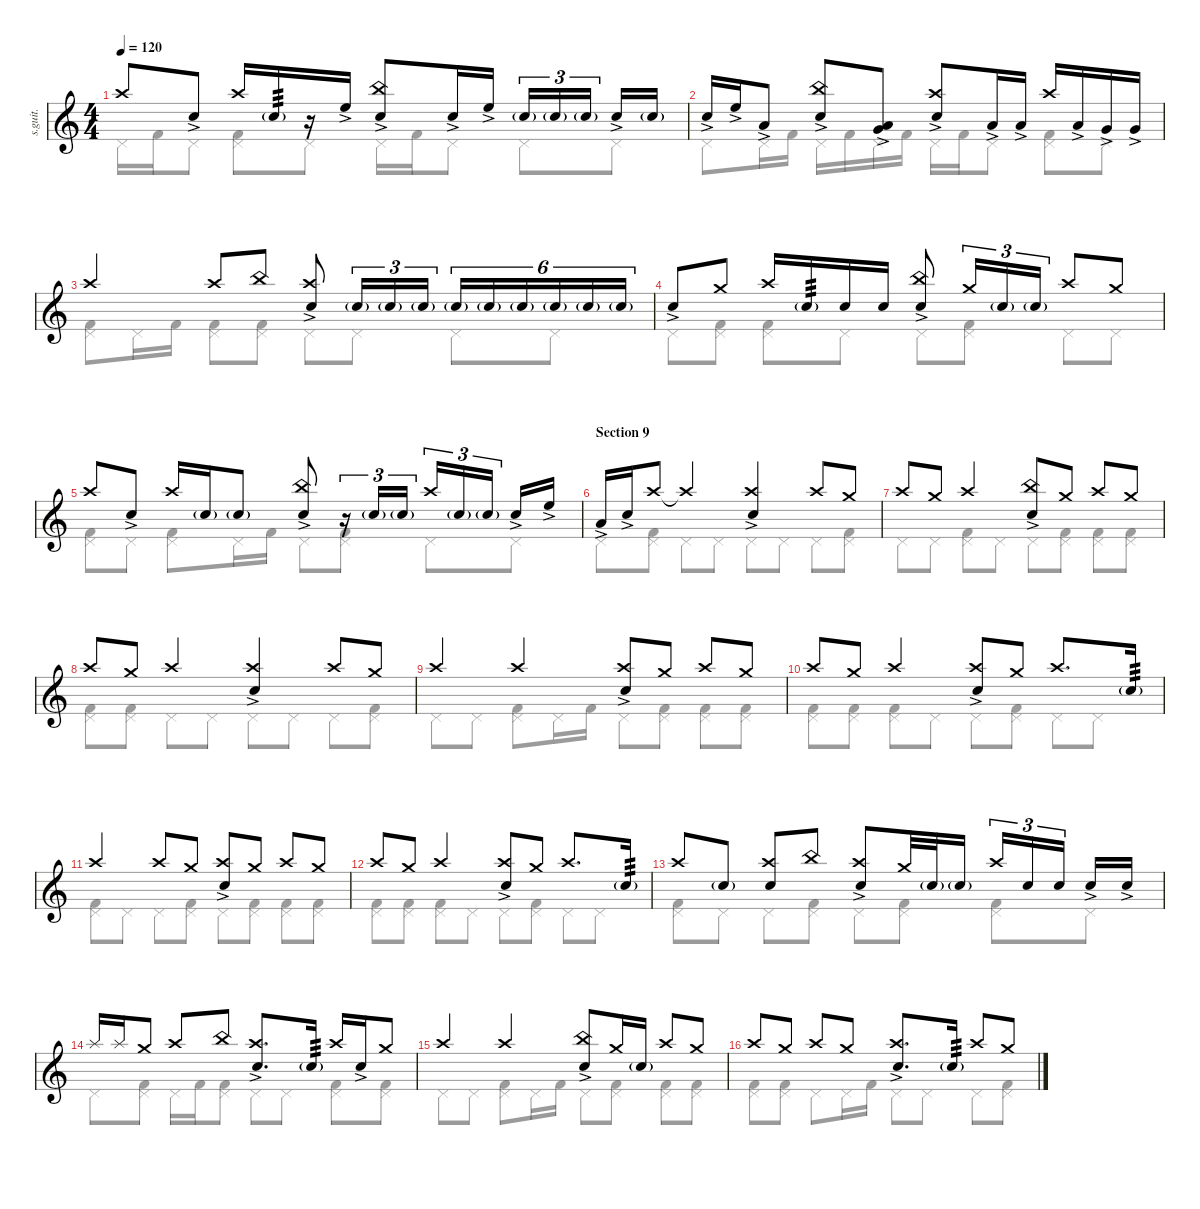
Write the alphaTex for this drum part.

\defaultSystemsLayout 4
\hideDynamics
\bracketExtendMode nobrackets
\track ("Matt Halpern" "s.guit.") {instrument percussion}
\staff {score}
\articulation defaults
\voice
\ts (4 4)
\tempo 120
\clef g2
\ks c "Crash high (hit)".8{lyrics (0 "") lyrics (1 "") lyrics (2 "") lyrics (3 "") lyrics (4 "") dy f} "Snare (hit) 2"{ac}.8{lyrics (0 "") lyrics (1 "") lyrics (2 "") lyrics (3 "") lyrics (4 "")} "Crash high (hit)".16{lyrics (0 "") lyrics (1 "") lyrics (2 "") lyrics (3 "") lyrics (4 "")} "Snare (hit) 2"{g}.16{lyrics (0 "") lyrics (1 "") lyrics (2 "") lyrics (3 "") lyrics (4 "") tp 3}
r.16 "High Floor Tom (hit)"{ac}.16{lyrics (0 "") lyrics (1 "") lyrics (2 "") lyrics (3 "") lyrics (4 "")} ("Snare (hit) 2"{ac} "China (hit)").8{lyrics (0 "") lyrics (1 "") lyrics (2 "") lyrics (3 "") lyrics (4 "")} "Snare (hit) 2"{ac}.16{lyrics (0 "") lyrics (1 "") lyrics (2 "") lyrics (3 "") lyrics (4 "")} "High Floor Tom (hit)"{ac}.16{lyrics (0 "") lyrics (1 "") lyrics (2 "") lyrics (3 "") lyrics (4 "")} "Snare (hit) 2"{g}.16{tu (3 2) lyrics (0 "") lyrics (1 "") lyrics (2 "") lyrics (3 "") lyrics (4 "")} "Snare (hit) 2"{g}.16{tu (3 2) lyrics (0 "") lyrics (1 "") lyrics (2 "") lyrics (3 "") lyrics (4 "")} "Snare (hit) 2"{g}.16{tu (3 2) lyrics (0 "") lyrics (1 "") lyrics (2 "") lyrics (3 "") lyrics (4 "")} "Snare (hit) 2"{ac}.16{lyrics (0 "") lyrics (1 "") lyrics (2 "") lyrics (3 "") lyrics (4 "")} "Snare (hit) 2"{g}.16{lyrics (0 "") lyrics (1 "") lyrics (2 "") lyrics (3 "") lyrics (4 "")} |
"Snare (hit) 2"{ac}.16{lyrics (0 "") lyrics (1 "") lyrics (2 "") lyrics (3 "") lyrics (4 "")} "High Floor Tom (hit)"{ac}.16{lyrics (0 "") lyrics (1 "") lyrics (2 "") lyrics (3 "") lyrics (4 "")} "Low Tom (hit)"{ac}.8{lyrics (0 "") lyrics (1 "") lyrics (2 "") lyrics (3 "") lyrics (4 "")} ("Snare (hit) 2"{ac} "China (hit)").8{lyrics (0 "") lyrics (1 "") lyrics (2 "") lyrics (3 "") lyrics (4 "")} ("Very Low Tom (hit)"{ac} "Low Tom (hit)"{ac}).8{lyrics (0 "") lyrics (1 "") lyrics (2 "") lyrics (3 "") lyrics (4 "")} ("Snare (hit) 2"{ac} "Crash high (hit)").8{lyrics (0 "") lyrics (1 "") lyrics (2 "") lyrics (3 "") lyrics (4 "")} "Low Tom (hit)"{ac}.16{lyrics (0 "") lyrics (1 "") lyrics (2 "") lyrics (3 "") lyrics (4 "")} "Low Tom (hit)"{ac}.16{lyrics (0 "") lyrics (1 "") lyrics (2 "") lyrics (3 "") lyrics (4 "")} "Crash high (hit)".16{lyrics (0 "") lyrics (1 "") lyrics (2 "") lyrics (3 "") lyrics (4 "")} "Low Tom (hit)"{ac}.16{lyrics (0 "") lyrics (1 "") lyrics (2 "") lyrics (3 "") lyrics (4 "")} "Very Low Tom (hit)"{ac}.16{lyrics (0 "") lyrics (1 "") lyrics (2 "") lyrics (3 "") lyrics (4 "")} "Very Low Tom (hit)"{ac}.16{lyrics (0 "") lyrics (1 "") lyrics (2 "") lyrics (3 "") lyrics (4 "")} |
"Crash high (hit)".4{lyrics (0 "") lyrics (1 "") lyrics (2 "") lyrics (3 "") lyrics (4 "")} "Crash high (hit)".8{lyrics (0 "") lyrics (1 "") lyrics (2 "") lyrics (3 "") lyrics (4 "")} "China (hit)".8{lyrics (0 "") lyrics (1 "") lyrics (2 "") lyrics (3 "") lyrics (4 "")} ("Crash high (hit)" "Snare (hit) 2"{ac}).8{lyrics (0 "") lyrics (1 "") lyrics (2 "") lyrics (3 "") lyrics (4 "")} "Snare (hit) 2"{g}.16{tu (3 2) lyrics (0 "") lyrics (1 "") lyrics (2 "") lyrics (3 "") lyrics (4 "")} "Snare (hit) 2"{g}.16{tu (3 2) lyrics (0 "") lyrics (1 "") lyrics (2 "") lyrics (3 "") lyrics (4 "")} "Snare (hit) 2"{g}.16{tu (3 2) lyrics (0 "") lyrics (1 "") lyrics (2 "") lyrics (3 "") lyrics (4 "")} "Snare (hit) 2"{g}.16{tu (6 4) lyrics (0 "") lyrics (1 "") lyrics (2 "") lyrics (3 "") lyrics (4 "")} "Snare (hit) 2"{g}.16{tu (6 4) lyrics (0 "") lyrics (1 "") lyrics (2 "") lyrics (3 "") lyrics (4 "")} "Snare (hit) 2"{g}.16{tu (6 4) lyrics (0 "") lyrics (1 "") lyrics (2 "") lyrics (3 "") lyrics (4 "")} "Snare (hit) 2"{g}.16{tu (6 4) lyrics (0 "") lyrics (1 "") lyrics (2 "") lyrics (3 "") lyrics (4 "")} "Snare (hit) 2"{g}.16{tu (6 4) lyrics (0 "") lyrics (1 "") lyrics (2 "") lyrics (3 "") lyrics (4 "")} "Snare (hit) 2"{g}.16{tu (6 4) lyrics (0 "") lyrics (1 "") lyrics (2 "") lyrics (3 "") lyrics (4 "")} |
"Snare (hit) 2"{ac}.8{lyrics (0 "") lyrics (1 "") lyrics (2 "") lyrics (3 "") lyrics (4 "")} "Crash medium (hit)".8{lyrics (0 "") lyrics (1 "") lyrics (2 "") lyrics (3 "") lyrics (4 "")} "Crash high (hit)".16{lyrics (0 "") lyrics (1 "") lyrics (2 "") lyrics (3 "") lyrics (4 "")} "Snare (hit) 2"{g}.16{lyrics (0 "") lyrics (1 "") lyrics (2 "") lyrics (3 "") lyrics (4 "") tp 3} "Snare (hit) 2".16{lyrics (0 "") lyrics (1 "") lyrics (2 "") lyrics (3 "") lyrics (4 "")} "Snare (hit) 2".16{lyrics (0 "") lyrics (1 "") lyrics (2 "") lyrics (3 "") lyrics (4 "")} ("Snare (hit) 2"{ac} "China (hit)").8{lyrics (0 "") lyrics (1 "") lyrics (2 "") lyrics (3 "") lyrics (4 "")} "Crash medium (hit)".16{tu (3 2) lyrics (0 "") lyrics (1 "") lyrics (2 "") lyrics (3 "") lyrics (4 "")} "Snare (hit) 2"{g}.16{tu (3 2) lyrics (0 "") lyrics (1 "") lyrics (2 "") lyrics (3 "") lyrics (4 "")} "Snare (hit) 2"{g}.16{tu (3 2) lyrics (0 "") lyrics (1 "") lyrics (2 "") lyrics (3 "") lyrics (4 "")} "Crash high (hit)".8{lyrics (0 "") lyrics (1 "") lyrics (2 "") lyrics (3 "") lyrics (4 "")} "Crash medium (hit)".8{lyrics (0 "") lyrics (1 "") lyrics (2 "") lyrics (3 "") lyrics (4 "")} |
"Crash high (hit)".8{lyrics (0 "") lyrics (1 "") lyrics (2 "") lyrics (3 "") lyrics (4 "")} "Snare (hit) 2"{ac}.8{lyrics (0 "") lyrics (1 "") lyrics (2 "") lyrics (3 "") lyrics (4 "")} "Crash high (hit)".16{lyrics (0 "") lyrics (1 "") lyrics (2 "") lyrics (3 "") lyrics (4 "")} "Snare (hit) 2"{g}.16{lyrics (0 "") lyrics (1 "") lyrics (2 "") lyrics (3 "") lyrics (4 "")} "Snare (hit) 2"{g}.8{lyrics (0 "") lyrics (1 "") lyrics (2 "") lyrics (3 "") lyrics (4 "")} ("China (hit)" "Snare (hit) 2"{ac}).8{lyrics (0 "") lyrics (1 "") lyrics (2 "") lyrics (3 "") lyrics (4 "")} r.16{tu (3 2)} "Snare (hit) 2"{g}.16{tu (3 2) lyrics (0 "") lyrics (1 "") lyrics (2 "") lyrics (3 "") lyrics (4 "")} "Snare (hit) 2"{g}.16{tu (3 2) lyrics (0 "") lyrics (1 "") lyrics (2 "") lyrics (3 "") lyrics (4 "")} "Crash high (hit)".16{tu (3 2) lyrics (0 "") lyrics (1 "") lyrics (2 "") lyrics (3 "") lyrics (4 "")} "Snare (hit) 2"{g}.16{tu (3 2) lyrics (0 "") lyrics (1 "") lyrics (2 "") lyrics (3 "") lyrics (4 "")} "Snare (hit) 2"{g}.16{tu (3 2) lyrics (0 "") lyrics (1 "") lyrics (2 "") lyrics (3 "") lyrics (4 "")} "Snare (hit) 2"{ac}.16{lyrics (0 "") lyrics (1 "") lyrics (2 "") lyrics (3 "") lyrics (4 "")} "High Floor Tom (hit)"{ac}.16{lyrics (0 "") lyrics (1 "") lyrics (2 "") lyrics (3 "") lyrics (4 "")} |
\section ("" "Section 9")
"Low Tom (hit)"{ac}.16{lyrics (0 "") lyrics (1 "") lyrics (2 "") lyrics (3 "") lyrics (4 "")} "Snare (hit) 2"{ac}.16{lyrics (0 "") lyrics (1 "") lyrics (2 "") lyrics (3 "") lyrics (4 "")} "Crash high (hit)".8{lyrics (0 "") lyrics (1 "") lyrics (2 "") lyrics (3 "") lyrics (4 "")} "Crash high (hit)"{t}.4{lyrics (0 "") lyrics (1 "") lyrics (2 "") lyrics (3 "") lyrics (4 "")} ("Crash high (hit)" "Snare (hit) 2"{ac}).4{lyrics (0 "") lyrics (1 "") lyrics (2 "") lyrics (3 "") lyrics (4 "")} "Crash high (hit)".8{lyrics (0 "") lyrics (1 "") lyrics (2 "") lyrics (3 "") lyrics (4 "")} "Crash medium (hit)".8{lyrics (0 "") lyrics (1 "") lyrics (2 "") lyrics (3 "") lyrics (4 "")} |
"Crash high (hit)".8{lyrics (0 "") lyrics (1 "") lyrics (2 "") lyrics (3 "") lyrics (4 "")} "Crash medium (hit)".8{lyrics (0 "") lyrics (1 "") lyrics (2 "") lyrics (3 "") lyrics (4 "")} "Crash high (hit)".4{lyrics (0 "") lyrics (1 "") lyrics (2 "") lyrics (3 "") lyrics (4 "")} ("China (hit)" "Snare (hit) 2"{ac}).8{lyrics (0 "") lyrics (1 "") lyrics (2 "") lyrics (3 "") lyrics (4 "")} "Crash medium (hit)".8{lyrics (0 "") lyrics (1 "") lyrics (2 "") lyrics (3 "") lyrics (4 "")} "Crash high (hit)".8{lyrics (0 "") lyrics (1 "") lyrics (2 "") lyrics (3 "") lyrics (4 "")} "Crash medium (hit)".8{lyrics (0 "") lyrics (1 "") lyrics (2 "") lyrics (3 "") lyrics (4 "")} |
"Crash high (hit)".8{lyrics (0 "") lyrics (1 "") lyrics (2 "") lyrics (3 "") lyrics (4 "")} "Crash medium (hit)".8{lyrics (0 "") lyrics (1 "") lyrics (2 "") lyrics (3 "") lyrics (4 "")} "Crash high (hit)".4{lyrics (0 "") lyrics (1 "") lyrics (2 "") lyrics (3 "") lyrics (4 "")} ("Crash high (hit)" "Snare (hit) 2"{ac}).4{lyrics (0 "") lyrics (1 "") lyrics (2 "") lyrics (3 "") lyrics (4 "")} "Crash high (hit)".8{lyrics (0 "") lyrics (1 "") lyrics (2 "") lyrics (3 "") lyrics (4 "")} "Crash medium (hit)".8{lyrics (0 "") lyrics (1 "") lyrics (2 "") lyrics (3 "") lyrics (4 "")} |
"Crash high (hit)".4{lyrics (0 "") lyrics (1 "") lyrics (2 "") lyrics (3 "") lyrics (4 "")} "Crash high (hit)".4{lyrics (0 "") lyrics (1 "") lyrics (2 "") lyrics (3 "") lyrics (4 "")} ("Crash high (hit)" "Snare (hit) 2"{ac}).8{lyrics (0 "") lyrics (1 "") lyrics (2 "") lyrics (3 "") lyrics (4 "")} "Crash medium (hit)".8{lyrics (0 "") lyrics (1 "") lyrics (2 "") lyrics (3 "") lyrics (4 "")} "Crash high (hit)".8{lyrics (0 "") lyrics (1 "") lyrics (2 "") lyrics (3 "") lyrics (4 "")} "Crash medium (hit)".8{lyrics (0 "") lyrics (1 "") lyrics (2 "") lyrics (3 "") lyrics (4 "")} |
"Crash high (hit)".8{lyrics (0 "") lyrics (1 "") lyrics (2 "") lyrics (3 "") lyrics (4 "")} "Crash medium (hit)".8{lyrics (0 "") lyrics (1 "") lyrics (2 "") lyrics (3 "") lyrics (4 "")} "Crash high (hit)".4{lyrics (0 "") lyrics (1 "") lyrics (2 "") lyrics (3 "") lyrics (4 "")} ("Crash high (hit)" "Snare (hit) 2"{ac}).8{lyrics (0 "") lyrics (1 "") lyrics (2 "") lyrics (3 "") lyrics (4 "")} "Crash medium (hit)".8{lyrics (0 "") lyrics (1 "") lyrics (2 "") lyrics (3 "") lyrics (4 "")} "Crash high (hit)".8{d lyrics (0 "") lyrics (1 "") lyrics (2 "") lyrics (3 "") lyrics (4 "")} "Snare (hit) 2"{g}.16{lyrics (0 "") lyrics (1 "") lyrics (2 "") lyrics (3 "") lyrics (4 "") tp 3} |
"Crash high (hit)".4{lyrics (0 "") lyrics (1 "") lyrics (2 "") lyrics (3 "") lyrics (4 "")} "Crash high (hit)".8{lyrics (0 "") lyrics (1 "") lyrics (2 "") lyrics (3 "") lyrics (4 "")} "Crash medium (hit)".8{lyrics (0 "") lyrics (1 "") lyrics (2 "") lyrics (3 "") lyrics (4 "")} ("Crash high (hit)" "Snare (hit) 2"{ac}).8{lyrics (0 "") lyrics (1 "") lyrics (2 "") lyrics (3 "") lyrics (4 "")} "Crash medium (hit)".8{lyrics (0 "") lyrics (1 "") lyrics (2 "") lyrics (3 "") lyrics (4 "")} "Crash high (hit)".8{lyrics (0 "") lyrics (1 "") lyrics (2 "") lyrics (3 "") lyrics (4 "")} "Crash medium (hit)".8{lyrics (0 "") lyrics (1 "") lyrics (2 "") lyrics (3 "") lyrics (4 "")} |
"Crash high (hit)".8{lyrics (0 "") lyrics (1 "") lyrics (2 "") lyrics (3 "") lyrics (4 "")} "Crash medium (hit)".8{lyrics (0 "") lyrics (1 "") lyrics (2 "") lyrics (3 "") lyrics (4 "")} "Crash high (hit)".4{lyrics (0 "") lyrics (1 "") lyrics (2 "") lyrics (3 "") lyrics (4 "")} ("Crash high (hit)" "Snare (hit) 2"{ac}).8{lyrics (0 "") lyrics (1 "") lyrics (2 "") lyrics (3 "") lyrics (4 "")} "Crash medium (hit)".8{lyrics (0 "") lyrics (1 "") lyrics (2 "") lyrics (3 "") lyrics (4 "")} "Crash high (hit)".8{d lyrics (0 "") lyrics (1 "") lyrics (2 "") lyrics (3 "") lyrics (4 "")} "Snare (hit) 2"{g}.16{lyrics (0 "") lyrics (1 "") lyrics (2 "") lyrics (3 "") lyrics (4 "") tp 3} |
"Crash high (hit)".8{lyrics (0 "") lyrics (1 "") lyrics (2 "") lyrics (3 "") lyrics (4 "")} "Snare (hit) 2"{g}.8{lyrics (0 "") lyrics (1 "") lyrics (2 "") lyrics (3 "") lyrics (4 "")} ("Snare (hit) 2" "Crash high (hit)").8{lyrics (0 "") lyrics (1 "") lyrics (2 "") lyrics (3 "") lyrics (4 "")} "China (hit)".8{lyrics (0 "") lyrics (1 "") lyrics (2 "") lyrics (3 "") lyrics (4 "")} ("Crash high (hit)" "Snare (hit) 2"{ac}).8{lyrics (0 "") lyrics (1 "") lyrics (2 "") lyrics (3 "") lyrics (4 "")} "Crash medium (hit)".32{lyrics (0 "") lyrics (1 "") lyrics (2 "") lyrics (3 "") lyrics (4 "")} "Snare (hit) 2"{g}.32{lyrics (0 "") lyrics (1 "") lyrics (2 "") lyrics (3 "") lyrics (4 "")} "Snare (hit) 2"{g}.16{lyrics (0 "") lyrics (1 "") lyrics (2 "") lyrics (3 "") lyrics (4 "")} "Crash high (hit)".16{tu (3 2) lyrics (0 "") lyrics (1 "") lyrics (2 "") lyrics (3 "") lyrics (4 "")} "Snare (hit) 2".16{tu (3 2) lyrics (0 "") lyrics (1 "") lyrics (2 "") lyrics (3 "") lyrics (4 "")} "Snare (hit) 2".16{tu (3 2) lyrics (0 "") lyrics (1 "") lyrics (2 "") lyrics (3 "") lyrics (4 "")} "Snare (hit) 2"{ac}.16{lyrics (0 "") lyrics (1 "") lyrics (2 "") lyrics (3 "") lyrics (4 "")} "Snare (hit) 2"{ac}.16{lyrics (0 "") lyrics (1 "") lyrics (2 "") lyrics (3 "") lyrics (4 "")} |
"Splash (hit)".16{lyrics (0 "") lyrics (1 "") lyrics (2 "") lyrics (3 "") lyrics (4 "")} "Splash (hit)".16{lyrics (0 "") lyrics (1 "") lyrics (2 "") lyrics (3 "") lyrics (4 "")} "Crash medium (hit)".8{lyrics (0 "") lyrics (1 "") lyrics (2 "") lyrics (3 "") lyrics (4 "")} "Crash high (hit)".8{lyrics (0 "") lyrics (1 "") lyrics (2 "") lyrics (3 "") lyrics (4 "")} "China (hit)".8{lyrics (0 "") lyrics (1 "") lyrics (2 "") lyrics (3 "") lyrics (4 "")} ("Crash high (hit)" "Snare (hit) 2"{ac}).8{d lyrics (0 "") lyrics (1 "") lyrics (2 "") lyrics (3 "") lyrics (4 "")} "Snare (hit) 2"{g}.16{lyrics (0 "") lyrics (1 "") lyrics (2 "") lyrics (3 "") lyrics (4 "") tp 3} "Crash high (hit)".16{lyrics (0 "") lyrics (1 "") lyrics (2 "") lyrics (3 "") lyrics (4 "")} "Snare (hit) 2"{ac}.16{lyrics (0 "") lyrics (1 "") lyrics (2 "") lyrics (3 "") lyrics (4 "")} "Crash medium (hit)".8{lyrics (0 "") lyrics (1 "") lyrics (2 "") lyrics (3 "") lyrics (4 "")} |
"Crash high (hit)".4{lyrics (0 "") lyrics (1 "") lyrics (2 "") lyrics (3 "") lyrics (4 "")} "Crash high (hit)".4{lyrics (0 "") lyrics (1 "") lyrics (2 "") lyrics (3 "") lyrics (4 "")} ("China (hit)" "Snare (hit) 2"{ac}).8{lyrics (0 "") lyrics (1 "") lyrics (2 "") lyrics (3 "") lyrics (4 "")} "Crash medium (hit)".16{lyrics (0 "") lyrics (1 "") lyrics (2 "") lyrics (3 "") lyrics (4 "")} "Snare (hit) 2"{g}.16{lyrics (0 "") lyrics (1 "") lyrics (2 "") lyrics (3 "") lyrics (4 "")} "Crash high (hit)".8{lyrics (0 "") lyrics (1 "") lyrics (2 "") lyrics (3 "") lyrics (4 "")} "Crash medium (hit)".8{lyrics (0 "") lyrics (1 "") lyrics (2 "") lyrics (3 "") lyrics (4 "")} |
"Crash high (hit)".8{lyrics (0 "") lyrics (1 "") lyrics (2 "") lyrics (3 "") lyrics (4 "")} "Crash medium (hit)".8{lyrics (0 "") lyrics (1 "") lyrics (2 "") lyrics (3 "") lyrics (4 "")} "Crash high (hit)".8{lyrics (0 "") lyrics (1 "") lyrics (2 "") lyrics (3 "") lyrics (4 "")} "Crash medium (hit)".8{lyrics (0 "") lyrics (1 "") lyrics (2 "") lyrics (3 "") lyrics (4 "")} ("Crash high (hit)" "Snare (hit) 2"{ac}).8{d lyrics (0 "") lyrics (1 "") lyrics (2 "") lyrics (3 "") lyrics (4 "")} "Snare (hit) 2"{g}.16{lyrics (0 "") lyrics (1 "") lyrics (2 "") lyrics (3 "") lyrics (4 "") tp 3} "Crash high (hit)".8{lyrics (0 "") lyrics (1 "") lyrics (2 "") lyrics (3 "") lyrics (4 "")} "Crash medium (hit)".8{lyrics (0 "") lyrics (1 "") lyrics (2 "") lyrics (3 "") lyrics (4 "")}
\voice
\clef g2
\ottava regular
\simile none
\ks c "Pedal Hi-Hat (hit)".16{lyrics (0 "") lyrics (1 "") lyrics (2 "") lyrics (3 "") lyrics (4 "") dy f} "Kick (hit) 2".16{lyrics (0 "") lyrics (1 "") lyrics (2 "") lyrics (3 "") lyrics (4 "")} "Pedal Hi-Hat (hit)".8{lyrics (0 "") lyrics (1 "") lyrics (2 "") lyrics (3 "") lyrics (4 "")}
("Pedal Hi-Hat (hit)" "Kick (hit) 2").8{lyrics (0 "") lyrics (1 "") lyrics (2 "") lyrics (3 "") lyrics (4 "")} "Pedal Hi-Hat (hit)".8{lyrics (0 "") lyrics (1 "") lyrics (2 "") lyrics (3 "") lyrics (4 "")} "Pedal Hi-Hat (hit)".16{lyrics (0 "") lyrics (1 "") lyrics (2 "") lyrics (3 "") lyrics (4 "")} "Kick (hit) 2".16{lyrics (0 "") lyrics (1 "") lyrics (2 "") lyrics (3 "") lyrics (4 "")} "Pedal Hi-Hat (hit)".8{lyrics (0 "") lyrics (1 "") lyrics (2 "") lyrics (3 "") lyrics (4 "")} "Pedal Hi-Hat (hit)".8{lyrics (0 "") lyrics (1 "") lyrics (2 "") lyrics (3 "") lyrics (4 "")} "Pedal Hi-Hat (hit)".8{lyrics (0 "") lyrics (1 "") lyrics (2 "") lyrics (3 "") lyrics (4 "")} |
"Pedal Hi-Hat (hit)".8{lyrics (0 "") lyrics (1 "") lyrics (2 "") lyrics (3 "") lyrics (4 "")} "Pedal Hi-Hat (hit)".16{lyrics (0 "") lyrics (1 "") lyrics (2 "") lyrics (3 "") lyrics (4 "")} "Kick (hit) 2".16{lyrics (0 "") lyrics (1 "") lyrics (2 "") lyrics (3 "") lyrics (4 "")} "Pedal Hi-Hat (hit)".16{lyrics (0 "") lyrics (1 "") lyrics (2 "") lyrics (3 "") lyrics (4 "")} "Kick (hit) 2".16{lyrics (0 "") lyrics (1 "") lyrics (2 "") lyrics (3 "") lyrics (4 "")} "Pedal Hi-Hat (hit)".16{lyrics (0 "") lyrics (1 "") lyrics (2 "") lyrics (3 "") lyrics (4 "")} "Kick (hit) 2".16{lyrics (0 "") lyrics (1 "") lyrics (2 "") lyrics (3 "") lyrics (4 "")} "Pedal Hi-Hat (hit)".16{lyrics (0 "") lyrics (1 "") lyrics (2 "") lyrics (3 "") lyrics (4 "")} "Kick (hit) 2".16{lyrics (0 "") lyrics (1 "") lyrics (2 "") lyrics (3 "") lyrics (4 "")} "Pedal Hi-Hat (hit)".8{lyrics (0 "") lyrics (1 "") lyrics (2 "") lyrics (3 "") lyrics (4 "")} ("Kick (hit) 2" "Pedal Hi-Hat (hit)").8{lyrics (0 "") lyrics (1 "") lyrics (2 "") lyrics (3 "") lyrics (4 "")} "Pedal Hi-Hat (hit)".8{lyrics (0 "") lyrics (1 "") lyrics (2 "") lyrics (3 "") lyrics (4 "")} |
("Pedal Hi-Hat (hit)" "Kick (hit) 2").8{lyrics (0 "") lyrics (1 "") lyrics (2 "") lyrics (3 "") lyrics (4 "")} "Pedal Hi-Hat (hit)".16{lyrics (0 "") lyrics (1 "") lyrics (2 "") lyrics (3 "") lyrics (4 "")} "Kick (hit) 2".16{lyrics (0 "") lyrics (1 "") lyrics (2 "") lyrics (3 "") lyrics (4 "")} ("Pedal Hi-Hat (hit)" "Kick (hit) 2").8{lyrics (0 "") lyrics (1 "") lyrics (2 "") lyrics (3 "") lyrics (4 "")} ("Kick (hit) 2" "Pedal Hi-Hat (hit)").8{lyrics (0 "") lyrics (1 "") lyrics (2 "") lyrics (3 "") lyrics (4 "")} "Pedal Hi-Hat (hit)".8{lyrics (0 "") lyrics (1 "") lyrics (2 "") lyrics (3 "") lyrics (4 "")} "Pedal Hi-Hat (hit)".8{lyrics (0 "") lyrics (1 "") lyrics (2 "") lyrics (3 "") lyrics (4 "")} "Pedal Hi-Hat (hit)".8{lyrics (0 "") lyrics (1 "") lyrics (2 "") lyrics (3 "") lyrics (4 "")} "Pedal Hi-Hat (hit)".8{lyrics (0 "") lyrics (1 "") lyrics (2 "") lyrics (3 "") lyrics (4 "")} |
"Pedal Hi-Hat (hit)".8{lyrics (0 "") lyrics (1 "") lyrics (2 "") lyrics (3 "") lyrics (4 "")} ("Kick (hit) 2" "Pedal Hi-Hat (hit)").8{lyrics (0 "") lyrics (1 "") lyrics (2 "") lyrics (3 "") lyrics (4 "")} ("Pedal Hi-Hat (hit)" "Kick (hit) 2").8{lyrics (0 "") lyrics (1 "") lyrics (2 "") lyrics (3 "") lyrics (4 "")} "Pedal Hi-Hat (hit)".8{lyrics (0 "") lyrics (1 "") lyrics (2 "") lyrics (3 "") lyrics (4 "")} "Pedal Hi-Hat (hit)".8{lyrics (0 "") lyrics (1 "") lyrics (2 "") lyrics (3 "") lyrics (4 "")} ("Pedal Hi-Hat (hit)" "Kick (hit) 2").8{lyrics (0 "") lyrics (1 "") lyrics (2 "") lyrics (3 "") lyrics (4 "")} "Pedal Hi-Hat (hit)".8{lyrics (0 "") lyrics (1 "") lyrics (2 "") lyrics (3 "") lyrics (4 "")} "Pedal Hi-Hat (hit)".8{lyrics (0 "") lyrics (1 "") lyrics (2 "") lyrics (3 "") lyrics (4 "")} |
("Pedal Hi-Hat (hit)" "Kick (hit) 2").8{lyrics (0 "") lyrics (1 "") lyrics (2 "") lyrics (3 "") lyrics (4 "")} "Pedal Hi-Hat (hit)".8{lyrics (0 "") lyrics (1 "") lyrics (2 "") lyrics (3 "") lyrics (4 "")} ("Pedal Hi-Hat (hit)" "Kick (hit) 2").8{lyrics (0 "") lyrics (1 "") lyrics (2 "") lyrics (3 "") lyrics (4 "")} "Pedal Hi-Hat (hit)".16{lyrics (0 "") lyrics (1 "") lyrics (2 "") lyrics (3 "") lyrics (4 "")} "Kick (hit) 2".16{lyrics (0 "") lyrics (1 "") lyrics (2 "") lyrics (3 "") lyrics (4 "")} "Pedal Hi-Hat (hit)".8{lyrics (0 "") lyrics (1 "") lyrics (2 "") lyrics (3 "") lyrics (4 "")} ("Pedal Hi-Hat (hit)" "Kick (hit) 2").8{lyrics (0 "") lyrics (1 "") lyrics (2 "") lyrics (3 "") lyrics (4 "")} "Pedal Hi-Hat (hit)".8{lyrics (0 "") lyrics (1 "") lyrics (2 "") lyrics (3 "") lyrics (4 "")} "Pedal Hi-Hat (hit)".8{lyrics (0 "") lyrics (1 "") lyrics (2 "") lyrics (3 "") lyrics (4 "")} |
"Pedal Hi-Hat (hit)".8{lyrics (0 "") lyrics (1 "") lyrics (2 "") lyrics (3 "") lyrics (4 "")} ("Pedal Hi-Hat (hit)" "Kick (hit) 2").8{lyrics (0 "") lyrics (1 "") lyrics (2 "") lyrics (3 "") lyrics (4 "")} "Pedal Hi-Hat (hit)".8{lyrics (0 "") lyrics (1 "") lyrics (2 "") lyrics (3 "") lyrics (4 "")} "Pedal Hi-Hat (hit)".8{lyrics (0 "") lyrics (1 "") lyrics (2 "") lyrics (3 "") lyrics (4 "")} "Pedal Hi-Hat (hit)".8{lyrics (0 "") lyrics (1 "") lyrics (2 "") lyrics (3 "") lyrics (4 "")} "Pedal Hi-Hat (hit)".8{lyrics (0 "") lyrics (1 "") lyrics (2 "") lyrics (3 "") lyrics (4 "")} "Pedal Hi-Hat (hit)".8{lyrics (0 "") lyrics (1 "") lyrics (2 "") lyrics (3 "") lyrics (4 "")} ("Pedal Hi-Hat (hit)" "Kick (hit) 2").8{lyrics (0 "") lyrics (1 "") lyrics (2 "") lyrics (3 "") lyrics (4 "")} |
"Pedal Hi-Hat (hit)".8{lyrics (0 "") lyrics (1 "") lyrics (2 "") lyrics (3 "") lyrics (4 "")} "Pedal Hi-Hat (hit)".8{lyrics (0 "") lyrics (1 "") lyrics (2 "") lyrics (3 "") lyrics (4 "")} ("Pedal Hi-Hat (hit)" "Kick (hit) 2").8{lyrics (0 "") lyrics (1 "") lyrics (2 "") lyrics (3 "") lyrics (4 "")} "Pedal Hi-Hat (hit)".8{lyrics (0 "") lyrics (1 "") lyrics (2 "") lyrics (3 "") lyrics (4 "")} "Pedal Hi-Hat (hit)".8{lyrics (0 "") lyrics (1 "") lyrics (2 "") lyrics (3 "") lyrics (4 "")} ("Pedal Hi-Hat (hit)" "Kick (hit) 2").8{lyrics (0 "") lyrics (1 "") lyrics (2 "") lyrics (3 "") lyrics (4 "")} ("Pedal Hi-Hat (hit)" "Kick (hit) 2").8{lyrics (0 "") lyrics (1 "") lyrics (2 "") lyrics (3 "") lyrics (4 "")} ("Pedal Hi-Hat (hit)" "Kick (hit) 2").8{lyrics (0 "") lyrics (1 "") lyrics (2 "") lyrics (3 "") lyrics (4 "")} |
("Pedal Hi-Hat (hit)" "Kick (hit) 2").8{lyrics (0 "") lyrics (1 "") lyrics (2 "") lyrics (3 "") lyrics (4 "")} ("Pedal Hi-Hat (hit)" "Kick (hit) 2").8{lyrics (0 "") lyrics (1 "") lyrics (2 "") lyrics (3 "") lyrics (4 "")} "Pedal Hi-Hat (hit)".8{lyrics (0 "") lyrics (1 "") lyrics (2 "") lyrics (3 "") lyrics (4 "")} "Pedal Hi-Hat (hit)".8{lyrics (0 "") lyrics (1 "") lyrics (2 "") lyrics (3 "") lyrics (4 "")} "Pedal Hi-Hat (hit)".8{lyrics (0 "") lyrics (1 "") lyrics (2 "") lyrics (3 "") lyrics (4 "")} "Pedal Hi-Hat (hit)".8{lyrics (0 "") lyrics (1 "") lyrics (2 "") lyrics (3 "") lyrics (4 "")} "Pedal Hi-Hat (hit)".8{lyrics (0 "") lyrics (1 "") lyrics (2 "") lyrics (3 "") lyrics (4 "")} ("Pedal Hi-Hat (hit)" "Kick (hit) 2").8{lyrics (0 "") lyrics (1 "") lyrics (2 "") lyrics (3 "") lyrics (4 "")} |
"Pedal Hi-Hat (hit)".8{lyrics (0 "") lyrics (1 "") lyrics (2 "") lyrics (3 "") lyrics (4 "")} "Pedal Hi-Hat (hit)".8{lyrics (0 "") lyrics (1 "") lyrics (2 "") lyrics (3 "") lyrics (4 "")} ("Pedal Hi-Hat (hit)" "Kick (hit) 2").8{lyrics (0 "") lyrics (1 "") lyrics (2 "") lyrics (3 "") lyrics (4 "")} "Pedal Hi-Hat (hit)".16{lyrics (0 "") lyrics (1 "") lyrics (2 "") lyrics (3 "") lyrics (4 "")} "Kick (hit) 2".16{lyrics (0 "") lyrics (1 "") lyrics (2 "") lyrics (3 "") lyrics (4 "")} "Pedal Hi-Hat (hit)".8{lyrics (0 "") lyrics (1 "") lyrics (2 "") lyrics (3 "") lyrics (4 "")} ("Pedal Hi-Hat (hit)" "Kick (hit) 2").8{lyrics (0 "") lyrics (1 "") lyrics (2 "") lyrics (3 "") lyrics (4 "")} ("Pedal Hi-Hat (hit)" "Kick (hit) 2").8{lyrics (0 "") lyrics (1 "") lyrics (2 "") lyrics (3 "") lyrics (4 "")} ("Pedal Hi-Hat (hit)" "Kick (hit) 2").8{lyrics (0 "") lyrics (1 "") lyrics (2 "") lyrics (3 "") lyrics (4 "")} |
("Kick (hit) 2" "Pedal Hi-Hat (hit)").8{lyrics (0 "") lyrics (1 "") lyrics (2 "") lyrics (3 "") lyrics (4 "")} ("Kick (hit) 2" "Pedal Hi-Hat (hit)").8{lyrics (0 "") lyrics (1 "") lyrics (2 "") lyrics (3 "") lyrics (4 "")} ("Kick (hit) 2" "Pedal Hi-Hat (hit)").8{lyrics (0 "") lyrics (1 "") lyrics (2 "") lyrics (3 "") lyrics (4 "")} "Pedal Hi-Hat (hit)".8{lyrics (0 "") lyrics (1 "") lyrics (2 "") lyrics (3 "") lyrics (4 "")} "Pedal Hi-Hat (hit)".8{lyrics (0 "") lyrics (1 "") lyrics (2 "") lyrics (3 "") lyrics (4 "")} ("Pedal Hi-Hat (hit)" "Kick (hit) 2").8{lyrics (0 "") lyrics (1 "") lyrics (2 "") lyrics (3 "") lyrics (4 "")} "Pedal Hi-Hat (hit)".8{lyrics (0 "") lyrics (1 "") lyrics (2 "") lyrics (3 "") lyrics (4 "")} "Pedal Hi-Hat (hit)".8{lyrics (0 "") lyrics (1 "") lyrics (2 "") lyrics (3 "") lyrics (4 "")} |
("Kick (hit) 2" "Pedal Hi-Hat (hit)").8{lyrics (0 "") lyrics (1 "") lyrics (2 "") lyrics (3 "") lyrics (4 "")} "Pedal Hi-Hat (hit)".8{lyrics (0 "") lyrics (1 "") lyrics (2 "") lyrics (3 "") lyrics (4 "")} "Pedal Hi-Hat (hit)".8{lyrics (0 "") lyrics (1 "") lyrics (2 "") lyrics (3 "") lyrics (4 "")} ("Pedal Hi-Hat (hit)" "Kick (hit) 2").8{lyrics (0 "") lyrics (1 "") lyrics (2 "") lyrics (3 "") lyrics (4 "")} "Pedal Hi-Hat (hit)".8{lyrics (0 "") lyrics (1 "") lyrics (2 "") lyrics (3 "") lyrics (4 "")} ("Pedal Hi-Hat (hit)" "Kick (hit) 2").8{lyrics (0 "") lyrics (1 "") lyrics (2 "") lyrics (3 "") lyrics (4 "")} ("Pedal Hi-Hat (hit)" "Kick (hit) 2").8{lyrics (0 "") lyrics (1 "") lyrics (2 "") lyrics (3 "") lyrics (4 "")} ("Pedal Hi-Hat (hit)" "Kick (hit) 2").8{lyrics (0 "") lyrics (1 "") lyrics (2 "") lyrics (3 "") lyrics (4 "")} |
("Kick (hit) 2" "Pedal Hi-Hat (hit)").8{lyrics (0 "") lyrics (1 "") lyrics (2 "") lyrics (3 "") lyrics (4 "")} ("Kick (hit) 2" "Pedal Hi-Hat (hit)").8{lyrics (0 "") lyrics (1 "") lyrics (2 "") lyrics (3 "") lyrics (4 "")} ("Kick (hit) 2" "Pedal Hi-Hat (hit)").8{lyrics (0 "") lyrics (1 "") lyrics (2 "") lyrics (3 "") lyrics (4 "")} "Pedal Hi-Hat (hit)".8{lyrics (0 "") lyrics (1 "") lyrics (2 "") lyrics (3 "") lyrics (4 "")} "Pedal Hi-Hat (hit)".8{lyrics (0 "") lyrics (1 "") lyrics (2 "") lyrics (3 "") lyrics (4 "")} ("Kick (hit) 2" "Pedal Hi-Hat (hit)").8{lyrics (0 "") lyrics (1 "") lyrics (2 "") lyrics (3 "") lyrics (4 "")} "Pedal Hi-Hat (hit)".8{lyrics (0 "") lyrics (1 "") lyrics (2 "") lyrics (3 "") lyrics (4 "")} "Pedal Hi-Hat (hit)".8{lyrics (0 "") lyrics (1 "") lyrics (2 "") lyrics (3 "") lyrics (4 "")} |
("Kick (hit) 2" "Pedal Hi-Hat (hit)").8{lyrics (0 "") lyrics (1 "") lyrics (2 "") lyrics (3 "") lyrics (4 "")} "Pedal Hi-Hat (hit)".8{lyrics (0 "") lyrics (1 "") lyrics (2 "") lyrics (3 "") lyrics (4 "")} "Pedal Hi-Hat (hit)".8{lyrics (0 "") lyrics (1 "") lyrics (2 "") lyrics (3 "") lyrics (4 "")} ("Pedal Hi-Hat (hit)" "Kick (hit) 2").8{lyrics (0 "") lyrics (1 "") lyrics (2 "") lyrics (3 "") lyrics (4 "")} "Pedal Hi-Hat (hit)".8{lyrics (0 "") lyrics (1 "") lyrics (2 "") lyrics (3 "") lyrics (4 "")} ("Pedal Hi-Hat (hit)" "Kick (hit) 2").8{lyrics (0 "") lyrics (1 "") lyrics (2 "") lyrics (3 "") lyrics (4 "")} ("Kick (hit) 2" "Pedal Hi-Hat (hit)").8{lyrics (0 "") lyrics (1 "") lyrics (2 "") lyrics (3 "") lyrics (4 "")} "Pedal Hi-Hat (hit)".8{lyrics (0 "") lyrics (1 "") lyrics (2 "") lyrics (3 "") lyrics (4 "")} |
"Pedal Hi-Hat (hit)".8{lyrics (0 "") lyrics (1 "") lyrics (2 "") lyrics (3 "") lyrics (4 "")} ("Pedal Hi-Hat (hit)" "Kick (hit) 2").8{lyrics (0 "") lyrics (1 "") lyrics (2 "") lyrics (3 "") lyrics (4 "")} "Pedal Hi-Hat (hit)".16{lyrics (0 "") lyrics (1 "") lyrics (2 "") lyrics (3 "") lyrics (4 "")} "Kick (hit) 2".16{lyrics (0 "") lyrics (1 "") lyrics (2 "") lyrics (3 "") lyrics (4 "")} ("Kick (hit) 2" "Pedal Hi-Hat (hit)").8{lyrics (0 "") lyrics (1 "") lyrics (2 "") lyrics (3 "") lyrics (4 "")} "Pedal Hi-Hat (hit)".8{lyrics (0 "") lyrics (1 "") lyrics (2 "") lyrics (3 "") lyrics (4 "")} "Pedal Hi-Hat (hit)".8{lyrics (0 "") lyrics (1 "") lyrics (2 "") lyrics (3 "") lyrics (4 "")} ("Pedal Hi-Hat (hit)" "Kick (hit) 2").8{lyrics (0 "") lyrics (1 "") lyrics (2 "") lyrics (3 "") lyrics (4 "")} ("Pedal Hi-Hat (hit)" "Kick (hit) 2").8{lyrics (0 "") lyrics (1 "") lyrics (2 "") lyrics (3 "") lyrics (4 "")} |
"Pedal Hi-Hat (hit)".8{lyrics (0 "") lyrics (1 "") lyrics (2 "") lyrics (3 "") lyrics (4 "")} "Pedal Hi-Hat (hit)".8{lyrics (0 "") lyrics (1 "") lyrics (2 "") lyrics (3 "") lyrics (4 "")} ("Pedal Hi-Hat (hit)" "Kick (hit) 2").8{lyrics (0 "") lyrics (1 "") lyrics (2 "") lyrics (3 "") lyrics (4 "")} "Pedal Hi-Hat (hit)".16{lyrics (0 "") lyrics (1 "") lyrics (2 "") lyrics (3 "") lyrics (4 "")} "Kick (hit) 2".16{lyrics (0 "") lyrics (1 "") lyrics (2 "") lyrics (3 "") lyrics (4 "")} "Pedal Hi-Hat (hit)".8{lyrics (0 "") lyrics (1 "") lyrics (2 "") lyrics (3 "") lyrics (4 "")} ("Pedal Hi-Hat (hit)" "Kick (hit) 2").8{lyrics (0 "") lyrics (1 "") lyrics (2 "") lyrics (3 "") lyrics (4 "")} ("Pedal Hi-Hat (hit)" "Kick (hit) 2").8{lyrics (0 "") lyrics (1 "") lyrics (2 "") lyrics (3 "") lyrics (4 "")} ("Pedal Hi-Hat (hit)" "Kick (hit) 2").8{lyrics (0 "") lyrics (1 "") lyrics (2 "") lyrics (3 "") lyrics (4 "")} |
("Kick (hit) 2" "Pedal Hi-Hat (hit)").8{lyrics (0 "") lyrics (1 "") lyrics (2 "") lyrics (3 "") lyrics (4 "")} ("Kick (hit) 2" "Pedal Hi-Hat (hit)").8{lyrics (0 "") lyrics (1 "") lyrics (2 "") lyrics (3 "") lyrics (4 "")} "Pedal Hi-Hat (hit)".8{lyrics (0 "") lyrics (1 "") lyrics (2 "") lyrics (3 "") lyrics (4 "")} "Pedal Hi-Hat (hit)".16{lyrics (0 "") lyrics (1 "") lyrics (2 "") lyrics (3 "") lyrics (4 "")} "Kick (hit) 2".16{lyrics (0 "") lyrics (1 "") lyrics (2 "") lyrics (3 "") lyrics (4 "")} "Pedal Hi-Hat (hit)".8{lyrics (0 "") lyrics (1 "") lyrics (2 "") lyrics (3 "") lyrics (4 "")} "Pedal Hi-Hat (hit)".8{lyrics (0 "") lyrics (1 "") lyrics (2 "") lyrics (3 "") lyrics (4 "")} "Pedal Hi-Hat (hit)".8{lyrics (0 "") lyrics (1 "") lyrics (2 "") lyrics (3 "") lyrics (4 "")} ("Pedal Hi-Hat (hit)" "Kick (hit) 2").8{lyrics (0 "") lyrics (1 "") lyrics (2 "") lyrics (3 "") lyrics (4 "")}
